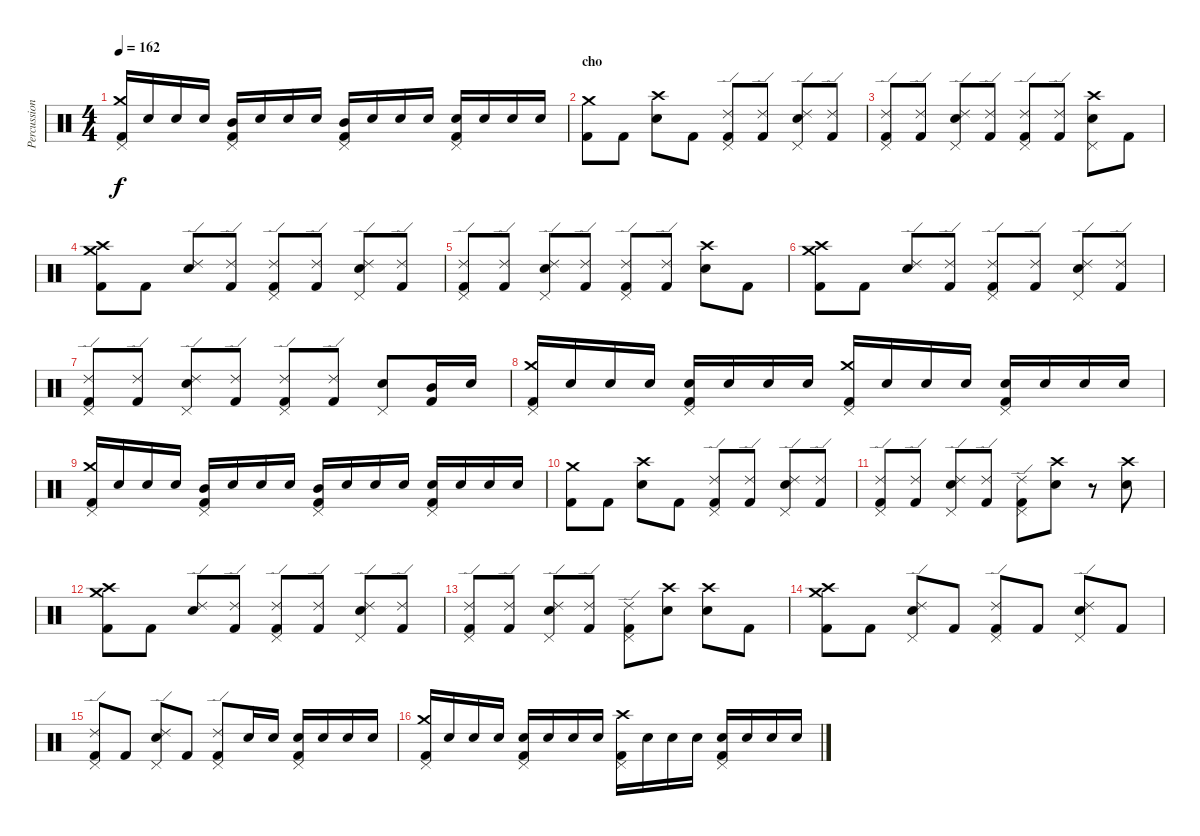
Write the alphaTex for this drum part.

\track ("Percussion" "Percussion") {instrument percussion}
\staff {score}
\articulation defaults
\ts (4 4)
\tempo 162
\clef neutral
\ks c
("Kick (hit) 2" "Crash medium (hit)" "Pedal Hi-Hat (hit)").16{dy f} "Snare (hit) 2".16 "Snare (hit) 2".16 "Snare (hit) 2".16 ("Kick (hit) 2" "Mid Tom (hit)" "Pedal Hi-Hat (hit)").16 "Snare (hit) 2".16 "Snare (hit) 2".16 "Snare (hit) 2".16 ("Kick (hit) 2" "Mid Tom (hit)" "Pedal Hi-Hat (hit)").16 "Snare (hit) 2".16 "Snare (hit) 2".16 "Snare (hit) 2".16 ("Kick (hit) 2" "Snare (hit) 2" "Pedal Hi-Hat (hit)").16 "Snare (hit) 2".16 "Snare (hit) 2".16 "Snare (hit) 2".16 |
\section ("" "cho")
("Kick (hit) 2" "Crash medium (hit)").8 "Kick (hit) 2".8 ("Snare (hit) 2" "Crash high (hit)").8 "Kick (hit) 2".8 ("Kick (hit) 2" "Ride (edge) 2" "Pedal Hi-Hat (hit)").8 ("Kick (hit) 2" "Ride (edge) 2").8 ("Snare (hit) 2" "Ride (edge) 2" "Pedal Hi-Hat (hit)").8 ("Kick (hit) 2" "Ride (edge) 2").8 |
("Kick (hit) 2" "Ride (edge) 2" "Pedal Hi-Hat (hit)").8 ("Kick (hit) 2" "Ride (edge) 2").8 ("Snare (hit) 2" "Ride (edge) 2" "Pedal Hi-Hat (hit)").8 ("Kick (hit) 2" "Ride (edge) 2").8 ("Kick (hit) 2" "Ride (edge) 2" "Pedal Hi-Hat (hit)").8 ("Kick (hit) 2" "Ride (edge) 2").8 ("Snare (hit) 2" "Crash high (hit)" "Pedal Hi-Hat (hit)").8 "Kick (hit) 2".8 |
("Kick (hit) 2" "Crash high (hit)" "Crash medium (hit)").8 "Kick (hit) 2".8 ("Snare (hit) 2" "Ride (edge) 2").8 ("Kick (hit) 2" "Ride (edge) 2").8 ("Kick (hit) 2" "Ride (edge) 2" "Pedal Hi-Hat (hit)").8 ("Kick (hit) 2" "Ride (edge) 2").8 ("Snare (hit) 2" "Ride (edge) 2" "Pedal Hi-Hat (hit)").8 ("Kick (hit) 2" "Ride (edge) 2").8 |
("Kick (hit) 2" "Ride (edge) 2" "Pedal Hi-Hat (hit)").8 ("Kick (hit) 2" "Ride (edge) 2").8 ("Snare (hit) 2" "Ride (edge) 2" "Pedal Hi-Hat (hit)").8 ("Kick (hit) 2" "Ride (edge) 2").8 ("Kick (hit) 2" "Ride (edge) 2" "Pedal Hi-Hat (hit)").8 ("Kick (hit) 2" "Ride (edge) 2").8 ("Snare (hit) 2" "Crash high (hit)").8 "Kick (hit) 2".8 |
("Kick (hit) 2" "Crash medium (hit)" "Crash high (hit)").8 "Kick (hit) 2".8 ("Snare (hit) 2" "Ride (edge) 2").8 ("Kick (hit) 2" "Ride (edge) 2").8 ("Kick (hit) 2" "Ride (edge) 2" "Pedal Hi-Hat (hit)").8 ("Kick (hit) 2" "Ride (edge) 2").8 ("Snare (hit) 2" "Ride (edge) 2" "Pedal Hi-Hat (hit)").8 ("Kick (hit) 2" "Ride (edge) 2").8 |
("Kick (hit) 2" "Ride (edge) 2" "Pedal Hi-Hat (hit)").8 ("Kick (hit) 2" "Ride (edge) 2").8 ("Snare (hit) 2" "Ride (edge) 2" "Pedal Hi-Hat (hit)").8 ("Kick (hit) 2" "Ride (edge) 2").8 ("Kick (hit) 2" "Ride (edge) 2" "Pedal Hi-Hat (hit)").8 ("Kick (hit) 2" "Ride (edge) 2").8 ("Snare (hit) 2" "Pedal Hi-Hat (hit)").8 ("Kick (hit) 2" "Mid Tom (hit)").16 "Snare (hit) 2".16 |
("Kick (hit) 2" "Crash medium (hit)" "Pedal Hi-Hat (hit)").16 "Snare (hit) 2".16 "Snare (hit) 2".16 "Snare (hit) 2".16 ("Kick (hit) 2" "Snare (hit) 2" "Pedal Hi-Hat (hit)").16 "Snare (hit) 2".16 "Snare (hit) 2".16 "Snare (hit) 2".16 ("Kick (hit) 2" "Crash medium (hit)" "Pedal Hi-Hat (hit)").16 "Snare (hit) 2".16 "Snare (hit) 2".16 "Snare (hit) 2".16 ("Kick (hit) 2" "Snare (hit) 2" "Pedal Hi-Hat (hit)").16 "Snare (hit) 2".16 "Snare (hit) 2".16 "Snare (hit) 2".16 |
("Kick (hit) 2" "Crash medium (hit)" "Pedal Hi-Hat (hit)").16 "Snare (hit) 2".16 "Snare (hit) 2".16 "Snare (hit) 2".16 ("Kick (hit) 2" "Mid Tom (hit)" "Pedal Hi-Hat (hit)").16 "Snare (hit) 2".16 "Snare (hit) 2".16 "Snare (hit) 2".16 ("Kick (hit) 2" "Mid Tom (hit)" "Pedal Hi-Hat (hit)").16 "Snare (hit) 2".16 "Snare (hit) 2".16 "Snare (hit) 2".16 ("Kick (hit) 2" "Snare (hit) 2" "Pedal Hi-Hat (hit)").16 "Snare (hit) 2".16 "Snare (hit) 2".16 "Snare (hit) 2".16 |
("Kick (hit) 2" "Crash medium (hit)").8 "Kick (hit) 2".8 ("Snare (hit) 2" "Crash high (hit)").8 "Kick (hit) 2".8 ("Kick (hit) 2" "Ride (edge) 2" "Pedal Hi-Hat (hit)").8 ("Kick (hit) 2" "Ride (edge) 2").8 ("Snare (hit) 2" "Ride (edge) 2" "Pedal Hi-Hat (hit)").8 ("Kick (hit) 2" "Ride (edge) 2").8 |
("Kick (hit) 2" "Ride (edge) 2" "Pedal Hi-Hat (hit)").8 ("Kick (hit) 2" "Ride (edge) 2").8 ("Snare (hit) 2" "Ride (edge) 2" "Pedal Hi-Hat (hit)").8 ("Kick (hit) 2" "Ride (edge) 2").8 ("Kick (hit) 2" "Ride (edge) 2" "Pedal Hi-Hat (hit)").8 ("Snare (hit) 2" "Crash high (hit)").8 r.8 ("Snare (hit) 2" "Crash high (hit)").8 |
("Kick (hit) 2" "Crash medium (hit)" "Crash high (hit)").8 "Kick (hit) 2".8 ("Snare (hit) 2" "Ride (edge) 2").8 ("Kick (hit) 2" "Ride (edge) 2").8 ("Kick (hit) 2" "Ride (edge) 2" "Pedal Hi-Hat (hit)").8 ("Kick (hit) 2" "Ride (edge) 2").8 ("Snare (hit) 2" "Ride (edge) 2" "Pedal Hi-Hat (hit)").8 ("Kick (hit) 2" "Ride (edge) 2").8 |
("Kick (hit) 2" "Ride (edge) 2" "Pedal Hi-Hat (hit)").8 ("Kick (hit) 2" "Ride (edge) 2").8 ("Snare (hit) 2" "Ride (edge) 2" "Pedal Hi-Hat (hit)").8 ("Kick (hit) 2" "Ride (edge) 2").8 ("Kick (hit) 2" "Ride (edge) 2" "Pedal Hi-Hat (hit)").8 ("Snare (hit) 2" "Crash high (hit)").8 ("Snare (hit) 2" "Crash high (hit)").8 "Kick (hit) 2".8 |
("Kick (hit) 2" "Crash high (hit)" "Crash medium (hit)").8 "Kick (hit) 2".8 ("Snare (hit) 2" "Ride (edge) 2" "Pedal Hi-Hat (hit)").8 "Kick (hit) 2".8 ("Kick (hit) 2" "Ride (edge) 2" "Pedal Hi-Hat (hit)").8 "Kick (hit) 2".8 ("Snare (hit) 2" "Ride (edge) 2" "Pedal Hi-Hat (hit)").8 "Kick (hit) 2".8 |
("Kick (hit) 2" "Ride (edge) 2" "Pedal Hi-Hat (hit)").8 "Kick (hit) 2".8 ("Snare (hit) 2" "Ride (edge) 2" "Pedal Hi-Hat (hit)").8 "Kick (hit) 2".8 ("Kick (hit) 2" "Ride (edge) 2" "Pedal Hi-Hat (hit)").8 "Snare (hit) 2".16 "Snare (hit) 2".16 ("Kick (hit) 2" "Snare (hit) 2" "Pedal Hi-Hat (hit)").16 "Snare (hit) 2".16 "Snare (hit) 2".16 "Snare (hit) 2".16 |
("Kick (hit) 2" "Crash medium (hit)" "Pedal Hi-Hat (hit)").16 "Snare (hit) 2".16 "Snare (hit) 2".16 "Snare (hit) 2".16 ("Kick (hit) 2" "Snare (hit) 2" "Pedal Hi-Hat (hit)").16 "Snare (hit) 2".16 "Snare (hit) 2".16 "Snare (hit) 2".16 ("Kick (hit) 2" "Crash high (hit)" "Pedal Hi-Hat (hit)").16 "Snare (hit) 2".16 "Snare (hit) 2".16 "Snare (hit) 2".16 ("Kick (hit) 2" "Snare (hit) 2" "Pedal Hi-Hat (hit)").16 "Snare (hit) 2".16 "Snare (hit) 2".16 "Snare (hit) 2".16
